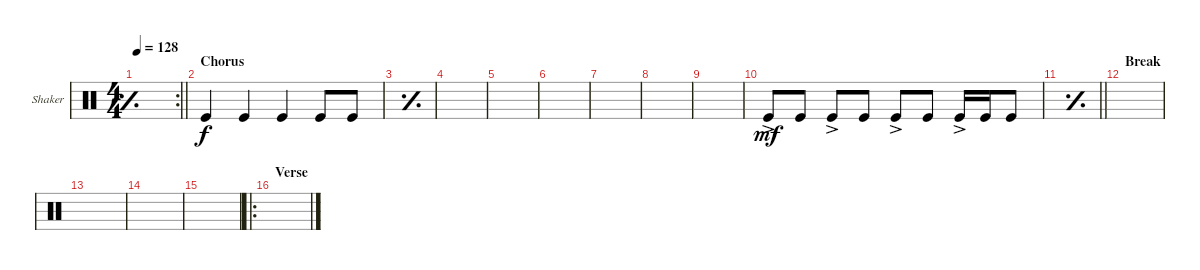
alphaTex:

\defaultSystemsLayout 4
\bracketExtendMode groupsimilarinstruments
\firstSystemTrackNameOrientation horizontal
\otherSystemsTrackNameOrientation horizontal
\track ("Shaker" "Shaker") {instrument percussion}
\staff {score}
\articulation defaults
\rc 2
\ts (4 4)
\tempo 128
\clef neutral
\simile simple
\scale
0.355932
\barLineRight lightlight
\ks c
|
\section ("" "Chorus")
\simile none
\scale
0.322034 "Kick (hit)".4{dy f} "Kick (hit)".4 "Kick (hit)".4 "Kick (hit)".8 "Kick (hit)".8 |
\simile simple
\scale
0.333333 |
\scale
0.333333 |
\scale
0.333333 |
\scale
0.333333 |
\scale
0.333333 |
\scale
0.333333 |
\scale
0.333333 |
\simile none
\scale
0.333333 "Kick (hit)"{ac}.8{dy mf} "Kick (hit)".8 "Kick (hit)"{ac}.8 "Kick (hit)".8 "Kick (hit)"{ac}.8 "Kick (hit)".8 "Kick (hit)"{ac}.16 "Kick (hit)".16 "Kick (hit)".8 |
\simile simple
\scale
0.333333
\barLineRight lightlight
|
\section ("" "Break")
\scale
0.333333 |
\scale
0.333333 |
\scale
0.333333 |
\scale
0.311475 |
\ro
\section ("" "Verse")
\scale
0.377049
